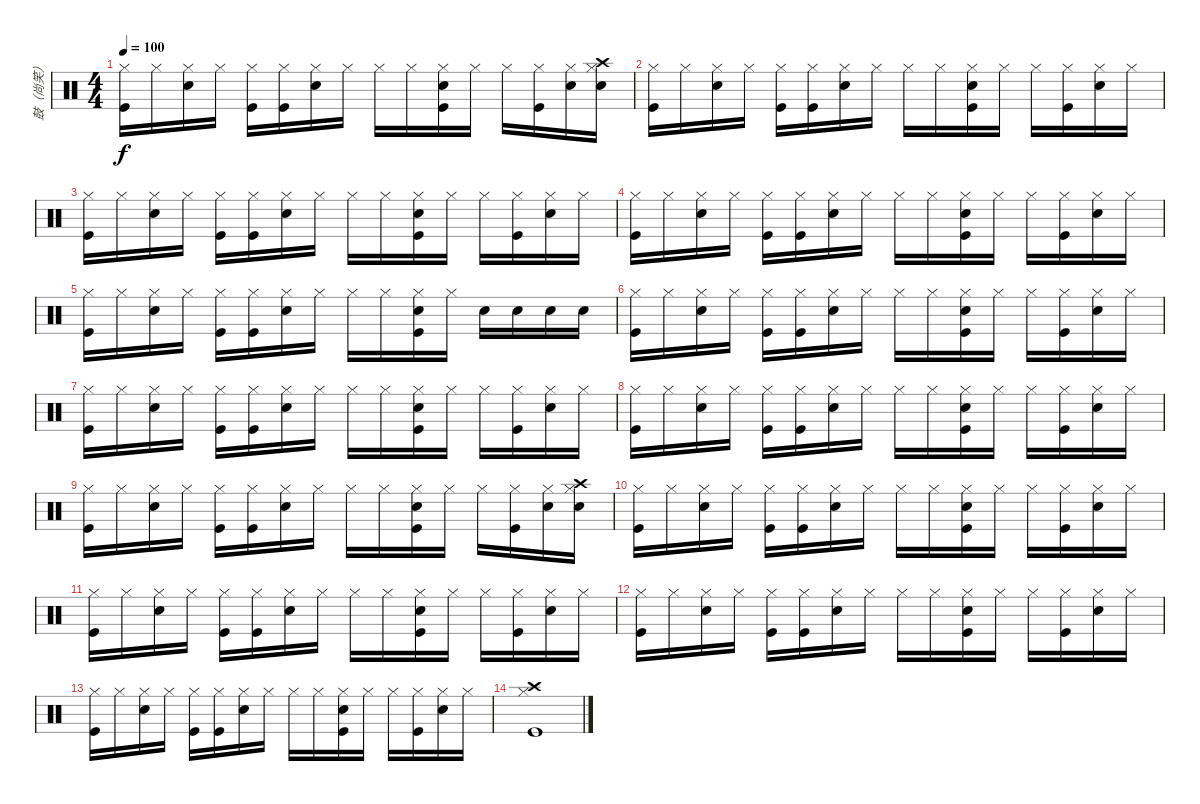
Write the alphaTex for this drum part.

\track ("鼓（尚笑）" "鼓（尚笑）") {instrument percussion}
\staff {score}
\articulation defaults
\ts (4 4)
\tempo 100
\clef neutral
\ks c
("Hi-Hat (closed)" "Kick (hit)").16{dy f} "Hi-Hat (closed)".16 ("Hi-Hat (closed)" "Snare (hit) 2").16 "Hi-Hat (closed)".16 ("Hi-Hat (closed)" "Kick (hit)").16 ("Hi-Hat (closed)" "Kick (hit)").16 ("Hi-Hat (closed)" "Snare (hit) 2").16 "Hi-Hat (closed)".16 "Hi-Hat (closed)".16 "Hi-Hat (closed)".16 ("Hi-Hat (closed)" "Snare (hit) 2" "Kick (hit)").16 "Hi-Hat (closed)".16 "Hi-Hat (closed)".16 ("Hi-Hat (closed)" "Kick (hit)").16 ("Hi-Hat (closed)" "Snare (hit) 2").16 ("Hi-Hat (closed)" "Snare (hit) 2" "Crash high (hit)").16 |
("Hi-Hat (closed)" "Kick (hit)").16 "Hi-Hat (closed)".16 ("Hi-Hat (closed)" "Snare (hit) 2").16 "Hi-Hat (closed)".16 ("Hi-Hat (closed)" "Kick (hit)").16 ("Hi-Hat (closed)" "Kick (hit)").16 ("Hi-Hat (closed)" "Snare (hit) 2").16 "Hi-Hat (closed)".16 "Hi-Hat (closed)".16 "Hi-Hat (closed)".16 ("Hi-Hat (closed)" "Snare (hit) 2" "Kick (hit)").16 "Hi-Hat (closed)".16 "Hi-Hat (closed)".16 ("Hi-Hat (closed)" "Kick (hit)").16 ("Hi-Hat (closed)" "Snare (hit) 2").16 "Hi-Hat (closed)".16 |
("Hi-Hat (closed)" "Kick (hit)").16 "Hi-Hat (closed)".16 ("Hi-Hat (closed)" "Snare (hit) 2").16 "Hi-Hat (closed)".16 ("Hi-Hat (closed)" "Kick (hit)").16 ("Hi-Hat (closed)" "Kick (hit)").16 ("Hi-Hat (closed)" "Snare (hit) 2").16 "Hi-Hat (closed)".16 "Hi-Hat (closed)".16 "Hi-Hat (closed)".16 ("Hi-Hat (closed)" "Snare (hit) 2" "Kick (hit)").16 "Hi-Hat (closed)".16 "Hi-Hat (closed)".16 ("Hi-Hat (closed)" "Kick (hit)").16 ("Hi-Hat (closed)" "Snare (hit) 2").16 "Hi-Hat (closed)".16 |
("Hi-Hat (closed)" "Kick (hit)").16 "Hi-Hat (closed)".16 ("Hi-Hat (closed)" "Snare (hit) 2").16 "Hi-Hat (closed)".16 ("Hi-Hat (closed)" "Kick (hit)").16 ("Hi-Hat (closed)" "Kick (hit)").16 ("Hi-Hat (closed)" "Snare (hit) 2").16 "Hi-Hat (closed)".16 "Hi-Hat (closed)".16 "Hi-Hat (closed)".16 ("Hi-Hat (closed)" "Snare (hit) 2" "Kick (hit)").16 "Hi-Hat (closed)".16 "Hi-Hat (closed)".16 ("Hi-Hat (closed)" "Kick (hit)").16 ("Hi-Hat (closed)" "Snare (hit) 2").16 "Hi-Hat (closed)".16 |
("Hi-Hat (closed)" "Kick (hit)").16 "Hi-Hat (closed)".16 ("Hi-Hat (closed)" "Snare (hit) 2").16 "Hi-Hat (closed)".16 ("Hi-Hat (closed)" "Kick (hit)").16 ("Hi-Hat (closed)" "Kick (hit)").16 ("Hi-Hat (closed)" "Snare (hit) 2").16 "Hi-Hat (closed)".16 "Hi-Hat (closed)".16 "Hi-Hat (closed)".16 ("Hi-Hat (closed)" "Snare (hit) 2" "Kick (hit)").16 "Hi-Hat (closed)".16 "Snare (hit) 2".16 "Snare (hit) 2".16 "Snare (hit) 2".16 "Snare (hit) 2".16 |
("Hi-Hat (closed)" "Kick (hit)").16 "Hi-Hat (closed)".16 ("Hi-Hat (closed)" "Snare (hit) 2").16 "Hi-Hat (closed)".16 ("Hi-Hat (closed)" "Kick (hit)").16 ("Hi-Hat (closed)" "Kick (hit)").16 ("Hi-Hat (closed)" "Snare (hit) 2").16 "Hi-Hat (closed)".16 "Hi-Hat (closed)".16 "Hi-Hat (closed)".16 ("Hi-Hat (closed)" "Snare (hit) 2" "Kick (hit)").16 "Hi-Hat (closed)".16 "Hi-Hat (closed)".16 ("Hi-Hat (closed)" "Kick (hit)").16 ("Hi-Hat (closed)" "Snare (hit) 2").16 "Hi-Hat (closed)".16 |
("Hi-Hat (closed)" "Kick (hit)").16 "Hi-Hat (closed)".16 ("Hi-Hat (closed)" "Snare (hit) 2").16 "Hi-Hat (closed)".16 ("Hi-Hat (closed)" "Kick (hit)").16 ("Hi-Hat (closed)" "Kick (hit)").16 ("Hi-Hat (closed)" "Snare (hit) 2").16 "Hi-Hat (closed)".16 "Hi-Hat (closed)".16 "Hi-Hat (closed)".16 ("Hi-Hat (closed)" "Snare (hit) 2" "Kick (hit)").16 "Hi-Hat (closed)".16 "Hi-Hat (closed)".16 ("Hi-Hat (closed)" "Kick (hit)").16 ("Hi-Hat (closed)" "Snare (hit) 2").16 "Hi-Hat (closed)".16 |
("Hi-Hat (closed)" "Kick (hit)").16 "Hi-Hat (closed)".16 ("Hi-Hat (closed)" "Snare (hit) 2").16 "Hi-Hat (closed)".16 ("Hi-Hat (closed)" "Kick (hit)").16 ("Hi-Hat (closed)" "Kick (hit)").16 ("Hi-Hat (closed)" "Snare (hit) 2").16 "Hi-Hat (closed)".16 "Hi-Hat (closed)".16 "Hi-Hat (closed)".16 ("Hi-Hat (closed)" "Snare (hit) 2" "Kick (hit)").16 "Hi-Hat (closed)".16 "Hi-Hat (closed)".16 ("Hi-Hat (closed)" "Kick (hit)").16 ("Hi-Hat (closed)" "Snare (hit) 2").16 "Hi-Hat (closed)".16 |
("Hi-Hat (closed)" "Kick (hit)").16 "Hi-Hat (closed)".16 ("Hi-Hat (closed)" "Snare (hit) 2").16 "Hi-Hat (closed)".16 ("Hi-Hat (closed)" "Kick (hit)").16 ("Hi-Hat (closed)" "Kick (hit)").16 ("Hi-Hat (closed)" "Snare (hit) 2").16 "Hi-Hat (closed)".16 "Hi-Hat (closed)".16 "Hi-Hat (closed)".16 ("Hi-Hat (closed)" "Snare (hit) 2" "Kick (hit)").16 "Hi-Hat (closed)".16 "Hi-Hat (closed)".16 ("Hi-Hat (closed)" "Kick (hit)").16 ("Hi-Hat (closed)" "Snare (hit) 2").16 ("Hi-Hat (closed)" "Crash high (hit)" "Snare (hit) 2").16 |
("Hi-Hat (closed)" "Kick (hit)").16 "Hi-Hat (closed)".16 ("Hi-Hat (closed)" "Snare (hit) 2").16 "Hi-Hat (closed)".16 ("Hi-Hat (closed)" "Kick (hit)").16 ("Hi-Hat (closed)" "Kick (hit)").16 ("Hi-Hat (closed)" "Snare (hit) 2").16 "Hi-Hat (closed)".16 "Hi-Hat (closed)".16 "Hi-Hat (closed)".16 ("Hi-Hat (closed)" "Snare (hit) 2" "Kick (hit)").16 "Hi-Hat (closed)".16 "Hi-Hat (closed)".16 ("Hi-Hat (closed)" "Kick (hit)").16 ("Hi-Hat (closed)" "Snare (hit) 2").16 "Hi-Hat (closed)".16 |
("Hi-Hat (closed)" "Kick (hit)").16 "Hi-Hat (closed)".16 ("Hi-Hat (closed)" "Snare (hit) 2").16 "Hi-Hat (closed)".16 ("Hi-Hat (closed)" "Kick (hit)").16 ("Hi-Hat (closed)" "Kick (hit)").16 ("Hi-Hat (closed)" "Snare (hit) 2").16 "Hi-Hat (closed)".16 "Hi-Hat (closed)".16 "Hi-Hat (closed)".16 ("Hi-Hat (closed)" "Snare (hit) 2" "Kick (hit)").16 "Hi-Hat (closed)".16 "Hi-Hat (closed)".16 ("Hi-Hat (closed)" "Kick (hit)").16 ("Hi-Hat (closed)" "Snare (hit) 2").16 "Hi-Hat (closed)".16 |
("Hi-Hat (closed)" "Kick (hit)").16 "Hi-Hat (closed)".16 ("Hi-Hat (closed)" "Snare (hit) 2").16 "Hi-Hat (closed)".16 ("Hi-Hat (closed)" "Kick (hit)").16 ("Hi-Hat (closed)" "Kick (hit)").16 ("Hi-Hat (closed)" "Snare (hit) 2").16 "Hi-Hat (closed)".16 "Hi-Hat (closed)".16 "Hi-Hat (closed)".16 ("Hi-Hat (closed)" "Snare (hit) 2" "Kick (hit)").16 "Hi-Hat (closed)".16 "Hi-Hat (closed)".16 ("Hi-Hat (closed)" "Kick (hit)").16 ("Hi-Hat (closed)" "Snare (hit) 2").16 "Hi-Hat (closed)".16 |
("Hi-Hat (closed)" "Kick (hit)").16 "Hi-Hat (closed)".16 ("Hi-Hat (closed)" "Snare (hit) 2").16 "Hi-Hat (closed)".16 ("Hi-Hat (closed)" "Kick (hit)").16 ("Hi-Hat (closed)" "Kick (hit)").16 ("Hi-Hat (closed)" "Snare (hit) 2").16 "Hi-Hat (closed)".16 "Hi-Hat (closed)".16 "Hi-Hat (closed)".16 ("Hi-Hat (closed)" "Snare (hit) 2" "Kick (hit)").16 "Hi-Hat (closed)".16 "Hi-Hat (closed)".16 ("Hi-Hat (closed)" "Kick (hit)").16 ("Hi-Hat (closed)" "Snare (hit) 2").16 "Hi-Hat (closed)".16 |
("Kick (hit)" "Hi-Hat (closed)" "Crash high (hit)").1
